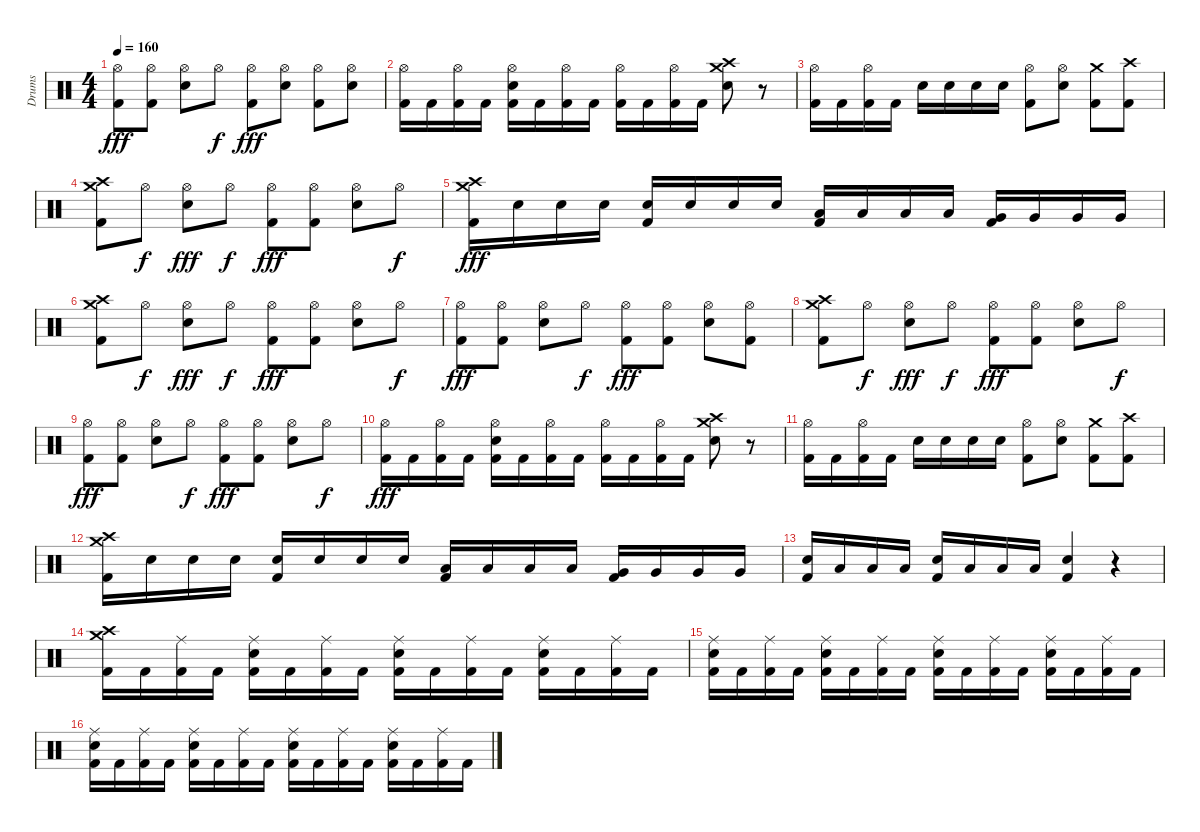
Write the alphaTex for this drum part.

\track ("Drums" "Drums") {instrument percussion}
\staff {score}
\articulation defaults
\ts (4 4)
\tempo 160
\clef neutral
\ks c
("Kick (hit) 2" "Hi-Hat (open)").8{dy fff} ("Kick (hit) 2" "Hi-Hat (open)").8 ("Electric Snare (hit)" "Hi-Hat (open)").8 "Hi-Hat (open)".8{dy f} ("Kick (hit) 2" "Hi-Hat (open)").8{dy fff} ("Electric Snare (hit)" "Hi-Hat (open)").8 ("Kick (hit) 2" "Hi-Hat (open)").8 ("Electric Snare (hit)" "Hi-Hat (open)").8 |
("Kick (hit) 2" "Hi-Hat (open)").16 "Kick (hit) 2".16 ("Kick (hit) 2" "Hi-Hat (open)").16 "Kick (hit) 2".16 ("Kick (hit) 2" "Electric Snare (hit)" "Hi-Hat (open)").16 "Kick (hit) 2".16 ("Kick (hit) 2" "Hi-Hat (open)").16 "Kick (hit) 2".16 ("Kick (hit) 2" "Hi-Hat (open)").16 "Kick (hit) 2".16 ("Kick (hit) 2" "Hi-Hat (open)").16 "Kick (hit) 2".16 ("Electric Snare (hit)" "Crash medium (hit)" "Crash high (hit)").8 r.8 |
("Kick (hit) 2" "Hi-Hat (open)").16 "Kick (hit) 2".16 ("Kick (hit) 2" "Hi-Hat (open)").16 "Kick (hit) 2".16 "Electric Snare (hit)".16 "Electric Snare (hit)".16 "Electric Snare (hit)".16 "Electric Snare (hit)".16 ("Kick (hit) 2" "Hi-Hat (open)").8 ("Electric Snare (hit)" "Hi-Hat (open)").8 ("Kick (hit) 2" "Crash medium (hit)").8 ("Kick (hit) 2" "Crash high (hit)").8 |
("Kick (hit) 2" "Crash medium (hit)" "Crash high (hit)").8 "Hi-Hat (open)".8{dy f} ("Electric Snare (hit)" "Hi-Hat (open)").8{dy fff} "Hi-Hat (open)".8{dy f} ("Kick (hit) 2" "Hi-Hat (open)").8{dy fff} ("Kick (hit) 2" "Hi-Hat (open)").8 ("Electric Snare (hit)" "Hi-Hat (open)").8 "Hi-Hat (open)".8{dy f} |
("Kick (hit) 2" "Crash high (hit)" "Crash medium (hit)").16{dy fff} "Electric Snare (hit)".16 "Electric Snare (hit)".16 "Electric Snare (hit)".16 ("Kick (hit) 2" "Electric Snare (hit)").16 "Electric Snare (hit)".16 "Electric Snare (hit)".16 "Electric Snare (hit)".16 ("Kick (hit) 2" "Low Tom (hit)").16 "Low Tom (hit)".16 "Low Tom (hit)".16 "Low Tom (hit)".16 ("Kick (hit) 2" "Very Low Tom (hit)").16 "Very Low Tom (hit)".16 "Very Low Tom (hit)".16 "Very Low Tom (hit)".16 |
("Kick (hit) 2" "Crash medium (hit)" "Crash high (hit)").8 "Hi-Hat (open)".8{dy f} ("Electric Snare (hit)" "Hi-Hat (open)").8{dy fff} "Hi-Hat (open)".8{dy f} ("Kick (hit) 2" "Hi-Hat (open)").8{dy fff} ("Kick (hit) 2" "Hi-Hat (open)").8 ("Electric Snare (hit)" "Hi-Hat (open)").8 "Hi-Hat (open)".8{dy f} |
("Kick (hit) 2" "Hi-Hat (open)").8{dy fff} ("Kick (hit) 2" "Hi-Hat (open)").8 ("Electric Snare (hit)" "Hi-Hat (open)").8 "Hi-Hat (open)".8{dy f} ("Kick (hit) 2" "Hi-Hat (open)").8{dy fff} ("Kick (hit) 2" "Hi-Hat (open)").8 ("Electric Snare (hit)" "Hi-Hat (open)").8 ("Kick (hit) 2" "Hi-Hat (open)").8 |
("Kick (hit) 2" "Crash medium (hit)" "Crash high (hit)").8 "Hi-Hat (open)".8{dy f} ("Electric Snare (hit)" "Hi-Hat (open)").8{dy fff} "Hi-Hat (open)".8{dy f} ("Kick (hit) 2" "Hi-Hat (open)").8{dy fff} ("Kick (hit) 2" "Hi-Hat (open)").8 ("Electric Snare (hit)" "Hi-Hat (open)").8 "Hi-Hat (open)".8{dy f} |
("Kick (hit) 2" "Hi-Hat (open)").8{dy fff} ("Kick (hit) 2" "Hi-Hat (open)").8 ("Electric Snare (hit)" "Hi-Hat (open)").8 "Hi-Hat (open)".8{dy f} ("Kick (hit) 2" "Hi-Hat (open)").8{dy fff} ("Kick (hit) 2" "Hi-Hat (open)").8 ("Electric Snare (hit)" "Hi-Hat (open)").8 "Hi-Hat (open)".8{dy f} |
("Kick (hit) 2" "Hi-Hat (open)").16{dy fff} "Kick (hit) 2".16 ("Kick (hit) 2" "Hi-Hat (open)").16 "Kick (hit) 2".16 ("Kick (hit) 2" "Electric Snare (hit)" "Hi-Hat (open)").16 "Kick (hit) 2".16 ("Kick (hit) 2" "Hi-Hat (open)").16 "Kick (hit) 2".16 ("Kick (hit) 2" "Hi-Hat (open)").16 "Kick (hit) 2".16 ("Kick (hit) 2" "Hi-Hat (open)").16 "Kick (hit) 2".16 ("Electric Snare (hit)" "Crash medium (hit)" "Crash high (hit)").8 r.8 |
("Kick (hit) 2" "Hi-Hat (open)").16 "Kick (hit) 2".16 ("Kick (hit) 2" "Hi-Hat (open)").16 "Kick (hit) 2".16 "Electric Snare (hit)".16 "Electric Snare (hit)".16 "Electric Snare (hit)".16 "Electric Snare (hit)".16 ("Kick (hit) 2" "Hi-Hat (open)").8 ("Electric Snare (hit)" "Hi-Hat (open)").8 ("Kick (hit) 2" "Crash medium (hit)").8 ("Kick (hit) 2" "Crash high (hit)").8 |
("Kick (hit) 2" "Crash high (hit)" "Crash medium (hit)").16 "Electric Snare (hit)".16 "Electric Snare (hit)".16 "Electric Snare (hit)".16 ("Kick (hit) 2" "Electric Snare (hit)").16 "Electric Snare (hit)".16 "Electric Snare (hit)".16 "Electric Snare (hit)".16 ("Kick (hit) 2" "Low Tom (hit)").16 "Low Tom (hit)".16 "Low Tom (hit)".16 "Low Tom (hit)".16 ("Kick (hit) 2" "Very Low Tom (hit)").16 "Very Low Tom (hit)".16 "Very Low Tom (hit)".16 "Very Low Tom (hit)".16 |
("Kick (hit) 2" "Electric Snare (hit)").16 "Low Tom (hit)".16 "Low Tom (hit)".16 "Low Tom (hit)".16 ("Kick (hit) 2" "Electric Snare (hit)").16 "Low Tom (hit)".16 "Low Tom (hit)".16 "Low Tom (hit)".16 ("Kick (hit) 2" "Electric Snare (hit)").4 r.4 |
("Kick (hit) 2" "Crash medium (hit)" "Crash high (hit)").16 "Kick (hit) 2".16 ("Kick (hit) 2" "Ride (middle)").16 "Kick (hit) 2".16 ("Kick (hit) 2" "Electric Snare (hit)" "Ride (middle)").16 "Kick (hit) 2".16 ("Kick (hit) 2" "Ride (middle)").16 "Kick (hit) 2".16 ("Kick (hit) 2" "Electric Snare (hit)" "Ride (middle)").16 "Kick (hit) 2".16 ("Kick (hit) 2" "Ride (middle)").16 "Kick (hit) 2".16 ("Kick (hit) 2" "Electric Snare (hit)" "Ride (middle)").16 "Kick (hit) 2".16 ("Kick (hit) 2" "Ride (middle)").16 "Kick (hit) 2".16 |
("Kick (hit) 2" "Electric Snare (hit)" "Ride (middle)").16 "Kick (hit) 2".16 ("Kick (hit) 2" "Ride (middle)").16 "Kick (hit) 2".16 ("Kick (hit) 2" "Electric Snare (hit)" "Ride (middle)").16 "Kick (hit) 2".16 ("Kick (hit) 2" "Ride (middle)").16 "Kick (hit) 2".16 ("Kick (hit) 2" "Electric Snare (hit)" "Ride (middle)").16 "Kick (hit) 2".16 ("Kick (hit) 2" "Ride (middle)").16 "Kick (hit) 2".16 ("Kick (hit) 2" "Electric Snare (hit)" "Ride (middle)").16 "Kick (hit) 2".16 ("Kick (hit) 2" "Ride (middle)").16 "Kick (hit) 2".16 |
("Kick (hit) 2" "Electric Snare (hit)" "Ride (middle)").16 "Kick (hit) 2".16 ("Kick (hit) 2" "Ride (middle)").16 "Kick (hit) 2".16 ("Kick (hit) 2" "Electric Snare (hit)" "Ride (middle)").16 "Kick (hit) 2".16 ("Kick (hit) 2" "Ride (middle)").16 "Kick (hit) 2".16 ("Kick (hit) 2" "Electric Snare (hit)" "Ride (middle)").16 "Kick (hit) 2".16 ("Kick (hit) 2" "Ride (middle)").16 "Kick (hit) 2".16 ("Kick (hit) 2" "Electric Snare (hit)" "Ride (middle)").16 "Kick (hit) 2".16 ("Kick (hit) 2" "Ride (middle)").16 "Kick (hit) 2".16
